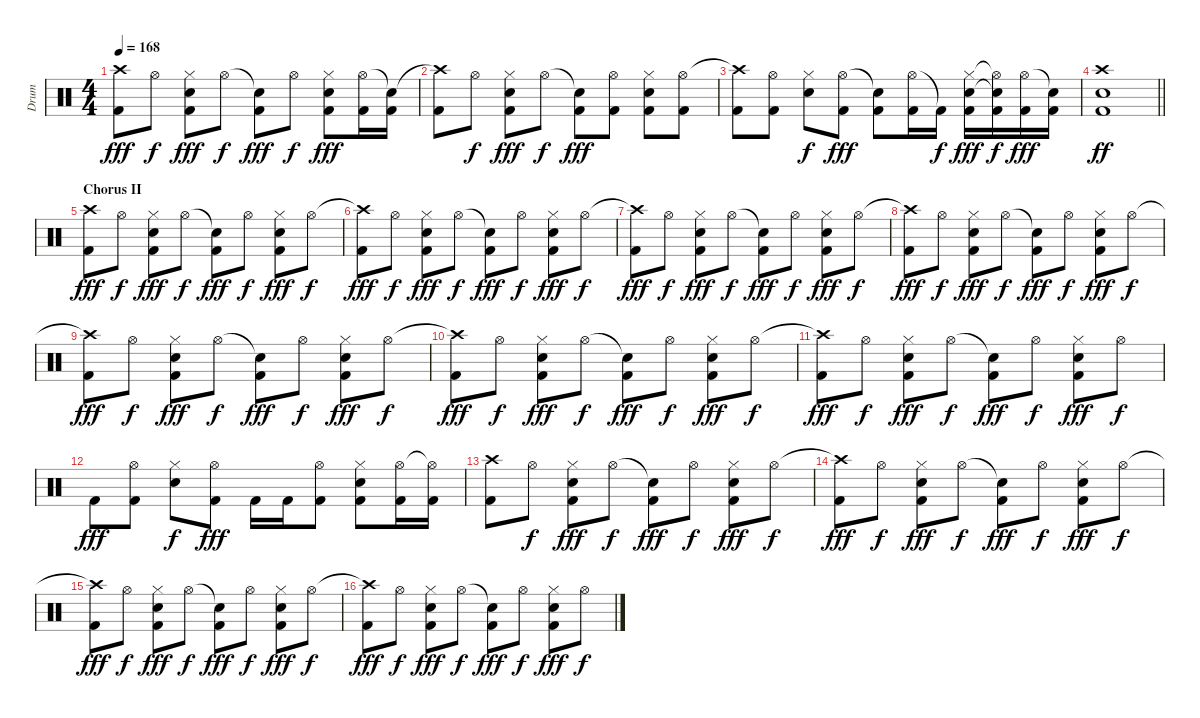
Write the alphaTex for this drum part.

\track ("Drum" "Drum") {instrument percussion}
\staff {score}
\articulation defaults
\ts (4 4)
\tempo 168
\clef neutral
\ks c
("Crash high (hit)"{t} "Kick (hit) 2").8{dy fff} "Hi-Hat (open)".8{dy f} ("Hi-Hat (closed)" "Snare (hit) 2" "Kick (hit) 2").8{dy fff} "Hi-Hat (open)".8{dy f} ("Snare (hit)"{t} "Kick (hit) 2").8{dy fff} "Hi-Hat (open)".8{dy f} ("Hi-Hat (closed)" "Snare (hit) 2" "Kick (hit) 2").8{dy fff} ("Hi-Hat (open)" "Kick (hit) 2").16 ("Snare (hit)"{t} "Kick (hit) 2").16 |
("Crash high (hit)"{t} "Kick (hit) 2").8 "Hi-Hat (open)".8{dy f} ("Hi-Hat (closed)" "Snare (hit) 2" "Kick (hit) 2").8{dy fff} "Hi-Hat (open)".8{dy f} ("Snare (hit)"{t} "Kick (hit) 2").8{dy fff} ("Hi-Hat (open)" "Kick (hit) 2").8 ("Hi-Hat (closed)" "Snare (hit) 2" "Kick (hit) 2").8 ("Hi-Hat (open)" "Kick (hit) 2").8 |
("Crash high (hit)"{t} "Kick (hit) 2").8 ("Hi-Hat (open)" "Kick (hit) 2").8 ("Hi-Hat (closed)" "Snare (hit) 2").8{dy f} ("Hi-Hat (open)" "Kick (hit) 2").8{dy fff} ("Snare (hit)"{t} "Kick (hit) 2").8 ("Hi-Hat (open)" "Kick (hit) 2").16 "Kick (hit) 2"{t}.16{dy f} ("Hi-Hat (closed)" "Snare (hit) 2" "Kick (hit) 2").16{dy fff} ("Hi-Hat (open)"{t} "Snare (hit)"{t} "Kick (hit) 2").16{dy f} ("Hi-Hat (open)" "Kick (hit) 2").16{dy fff} ("Snare (hit)"{t} "Kick (hit) 2").16 |
\barLineRight lightlight
("Crash high (hit)" "Snare (hit) 2" "Kick (hit) 2").1{dy ff} |
\section ("" "Chorus II")
("Crash high (hit)" "Kick (hit) 2").8{dy fff} "Hi-Hat (open)".8{dy f} ("Hi-Hat (closed)" "Snare (hit) 2" "Kick (hit) 2").8{dy fff} "Hi-Hat (open)".8{dy f} ("Snare (hit)"{t} "Kick (hit) 2").8{dy fff} "Hi-Hat (open)".8{dy f} ("Hi-Hat (closed)" "Snare (hit) 2" "Kick (hit) 2").8{dy fff} "Hi-Hat (open)".8{dy f} |
("Crash high (hit)"{t} "Kick (hit) 2").8{dy fff} "Hi-Hat (open)".8{dy f} ("Hi-Hat (closed)" "Snare (hit) 2" "Kick (hit) 2").8{dy fff} "Hi-Hat (open)".8{dy f} ("Snare (hit)"{t} "Kick (hit) 2").8{dy fff} "Hi-Hat (open)".8{dy f} ("Hi-Hat (closed)" "Snare (hit) 2" "Kick (hit) 2").8{dy fff} "Hi-Hat (open)".8{dy f} |
("Crash high (hit)"{t} "Kick (hit) 2").8{dy fff} "Hi-Hat (open)".8{dy f} ("Hi-Hat (closed)" "Snare (hit) 2" "Kick (hit) 2").8{dy fff} "Hi-Hat (open)".8{dy f} ("Snare (hit)"{t} "Kick (hit) 2").8{dy fff} "Hi-Hat (open)".8{dy f} ("Hi-Hat (closed)" "Snare (hit) 2" "Kick (hit) 2").8{dy fff} "Hi-Hat (open)".8{dy f} |
("Crash high (hit)"{t} "Kick (hit) 2").8{dy fff} "Hi-Hat (open)".8{dy f} ("Hi-Hat (closed)" "Snare (hit) 2" "Kick (hit) 2").8{dy fff} "Hi-Hat (open)".8{dy f} ("Snare (hit)"{t} "Kick (hit) 2").8{dy fff} "Hi-Hat (open)".8{dy f} ("Hi-Hat (closed)" "Snare (hit) 2" "Kick (hit) 2").8{dy fff} "Hi-Hat (open)".8{dy f} |
("Crash high (hit)"{t} "Kick (hit) 2").8{dy fff} "Hi-Hat (open)".8{dy f} ("Hi-Hat (closed)" "Snare (hit) 2" "Kick (hit) 2").8{dy fff} "Hi-Hat (open)".8{dy f} ("Snare (hit)"{t} "Kick (hit) 2").8{dy fff} "Hi-Hat (open)".8{dy f} ("Hi-Hat (closed)" "Snare (hit) 2" "Kick (hit) 2").8{dy fff} "Hi-Hat (open)".8{dy f} |
("Crash high (hit)"{t} "Kick (hit) 2").8{dy fff} "Hi-Hat (open)".8{dy f} ("Hi-Hat (closed)" "Snare (hit) 2" "Kick (hit) 2").8{dy fff} "Hi-Hat (open)".8{dy f} ("Snare (hit)"{t} "Kick (hit) 2").8{dy fff} "Hi-Hat (open)".8{dy f} ("Hi-Hat (closed)" "Snare (hit) 2" "Kick (hit) 2").8{dy fff} "Hi-Hat (open)".8{dy f} |
("Crash high (hit)"{t} "Kick (hit) 2").8{dy fff} "Hi-Hat (open)".8{dy f} ("Hi-Hat (closed)" "Snare (hit) 2" "Kick (hit) 2").8{dy fff} "Hi-Hat (open)".8{dy f} ("Snare (hit)"{t} "Kick (hit) 2").8{dy fff} "Hi-Hat (open)".8{dy f} ("Hi-Hat (closed)" "Snare (hit) 2" "Kick (hit) 2").8{dy fff} "Hi-Hat (open)".8{dy f} |
"Kick (hit) 2".8{dy fff} ("Hi-Hat (open)" "Kick (hit) 2").8 ("Hi-Hat (closed)" "Snare (hit) 2").8{dy f} ("Hi-Hat (open)" "Kick (hit) 2").8{dy fff} "Kick (hit) 2".16 "Kick (hit) 2".16 ("Hi-Hat (open)" "Kick (hit) 2").8 ("Hi-Hat (closed)" "Snare (hit) 2" "Kick (hit) 2").8 ("Hi-Hat (open)" "Kick (hit) 2").16 ("Hi-Hat (open)"{t} "Kick (hit) 2").16 |
("Crash high (hit)" "Kick (hit) 2").8 "Hi-Hat (open)".8{dy f} ("Hi-Hat (closed)" "Snare (hit) 2" "Kick (hit) 2").8{dy fff} "Hi-Hat (open)".8{dy f} ("Snare (hit)"{t} "Kick (hit) 2").8{dy fff} "Hi-Hat (open)".8{dy f} ("Hi-Hat (closed)" "Snare (hit) 2" "Kick (hit) 2").8{dy fff} "Hi-Hat (open)".8{dy f} |
("Crash high (hit)"{t} "Kick (hit) 2").8{dy fff} "Hi-Hat (open)".8{dy f} ("Hi-Hat (closed)" "Snare (hit) 2" "Kick (hit) 2").8{dy fff} "Hi-Hat (open)".8{dy f} ("Snare (hit)"{t} "Kick (hit) 2").8{dy fff} "Hi-Hat (open)".8{dy f} ("Hi-Hat (closed)" "Snare (hit) 2" "Kick (hit) 2").8{dy fff} "Hi-Hat (open)".8{dy f} |
("Crash high (hit)"{t} "Kick (hit) 2").8{dy fff} "Hi-Hat (open)".8{dy f} ("Hi-Hat (closed)" "Snare (hit) 2" "Kick (hit) 2").8{dy fff} "Hi-Hat (open)".8{dy f} ("Snare (hit)"{t} "Kick (hit) 2").8{dy fff} "Hi-Hat (open)".8{dy f} ("Hi-Hat (closed)" "Snare (hit) 2" "Kick (hit) 2").8{dy fff} "Hi-Hat (open)".8{dy f} |
("Crash high (hit)"{t} "Kick (hit) 2").8{dy fff} "Hi-Hat (open)".8{dy f} ("Hi-Hat (closed)" "Snare (hit) 2" "Kick (hit) 2").8{dy fff} "Hi-Hat (open)".8{dy f} ("Snare (hit)"{t} "Kick (hit) 2").8{dy fff} "Hi-Hat (open)".8{dy f} ("Hi-Hat (closed)" "Snare (hit) 2" "Kick (hit) 2").8{dy fff} "Hi-Hat (open)".8{dy f}
